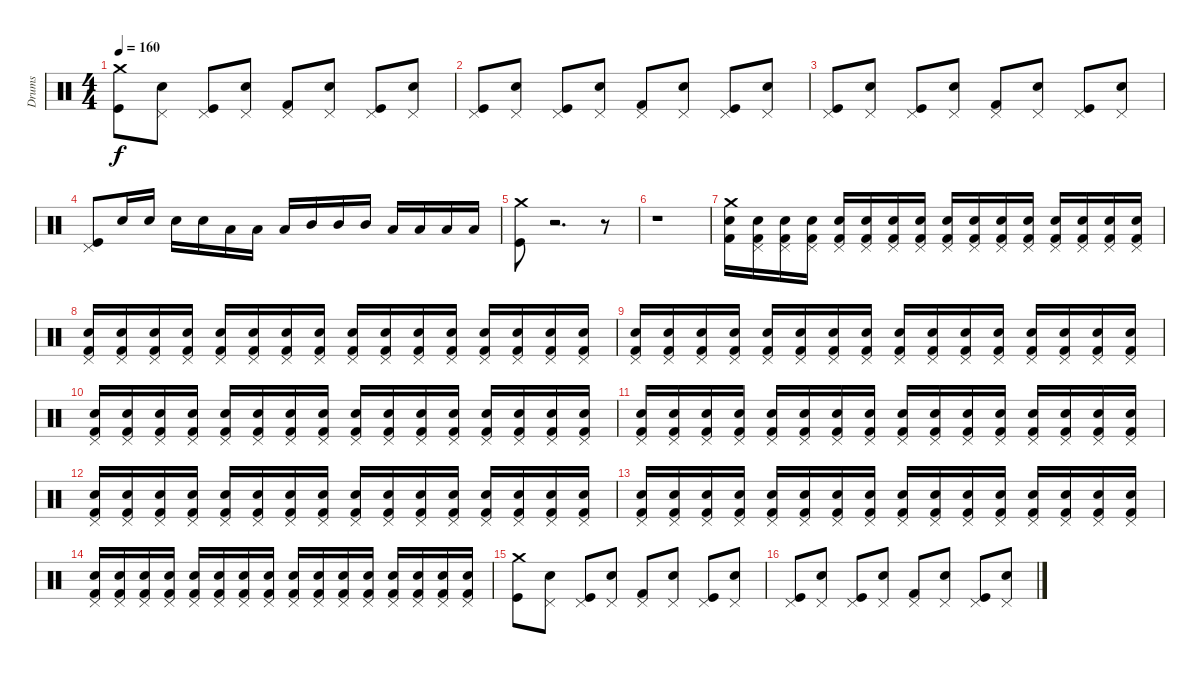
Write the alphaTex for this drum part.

\track ("Drums" "Drums") {instrument percussion}
\staff {score}
\articulation defaults
\ts (4 4)
\tempo 160
\clef neutral
\ks c
("Crash medium (hit)" "Kick (hit)").8{dy f} ("Pedal Hi-Hat (hit)" "Electric Snare (hit)").8 ("Pedal Hi-Hat (hit)" "Kick (hit)").8 ("Pedal Hi-Hat (hit)" "Electric Snare (hit)").8 ("Pedal Hi-Hat (hit)" "Kick (hit) 2").8 ("Pedal Hi-Hat (hit)" "Electric Snare (hit)").8 ("Pedal Hi-Hat (hit)" "Kick (hit)").8 ("Pedal Hi-Hat (hit)" "Electric Snare (hit)").8 |
("Pedal Hi-Hat (hit)" "Kick (hit)").8 ("Pedal Hi-Hat (hit)" "Electric Snare (hit)").8 ("Pedal Hi-Hat (hit)" "Kick (hit)").8 ("Pedal Hi-Hat (hit)" "Electric Snare (hit)").8 ("Pedal Hi-Hat (hit)" "Kick (hit) 2").8 ("Pedal Hi-Hat (hit)" "Electric Snare (hit)").8 ("Pedal Hi-Hat (hit)" "Kick (hit)").8 ("Pedal Hi-Hat (hit)" "Electric Snare (hit)").8 |
("Pedal Hi-Hat (hit)" "Kick (hit)").8 ("Pedal Hi-Hat (hit)" "Electric Snare (hit)").8 ("Pedal Hi-Hat (hit)" "Kick (hit)").8 ("Pedal Hi-Hat (hit)" "Electric Snare (hit)").8 ("Pedal Hi-Hat (hit)" "Kick (hit) 2").8 ("Pedal Hi-Hat (hit)" "Electric Snare (hit)").8 ("Pedal Hi-Hat (hit)" "Kick (hit)").8 ("Pedal Hi-Hat (hit)" "Electric Snare (hit)").8 |
("Pedal Hi-Hat (hit)" "Kick (hit)").8 "Electric Snare (hit)".16 "Electric Snare (hit)".16 "Electric Snare (hit)".16 "Electric Snare (hit)".16 "Low Tom (hit)".16 "Low Tom (hit)".16 "Low Tom (hit)".16 "Mid Tom (hit)".16 "Mid Tom (hit)".16 "Mid Tom (hit)".16 "Low Tom (hit)".16 "Low Tom (hit)".16 "Low Tom (hit)".16 "Low Tom (hit)".16 |
("Crash medium (hit)" "Kick (hit)").8 r.2{d} r.8 |
r.1 |
("Electric Snare (hit)" "Crash medium (hit)" "Kick (hit) 2").16 ("Pedal Hi-Hat (hit)" "Electric Snare (hit)" "Kick (hit) 2").16 ("Pedal Hi-Hat (hit)" "Kick (hit) 2" "Electric Snare (hit)").16 ("Pedal Hi-Hat (hit)" "Kick (hit) 2" "Electric Snare (hit)").16 ("Pedal Hi-Hat (hit)" "Electric Snare (hit)" "Kick (hit) 2").16 ("Pedal Hi-Hat (hit)" "Electric Snare (hit)" "Kick (hit) 2").16 ("Pedal Hi-Hat (hit)" "Kick (hit) 2" "Electric Snare (hit)").16 ("Pedal Hi-Hat (hit)" "Kick (hit) 2" "Electric Snare (hit)").16 ("Pedal Hi-Hat (hit)" "Electric Snare (hit)" "Kick (hit) 2").16 ("Pedal Hi-Hat (hit)" "Electric Snare (hit)" "Kick (hit) 2").16 ("Pedal Hi-Hat (hit)" "Kick (hit) 2" "Electric Snare (hit)").16 ("Pedal Hi-Hat (hit)" "Kick (hit) 2" "Electric Snare (hit)").16 ("Pedal Hi-Hat (hit)" "Electric Snare (hit)" "Kick (hit) 2").16 ("Pedal Hi-Hat (hit)" "Electric Snare (hit)" "Kick (hit) 2").16 ("Pedal Hi-Hat (hit)" "Kick (hit) 2" "Electric Snare (hit)").16 ("Pedal Hi-Hat (hit)" "Kick (hit) 2" "Electric Snare (hit)").16 |
("Pedal Hi-Hat (hit)" "Electric Snare (hit)" "Kick (hit) 2").16 ("Pedal Hi-Hat (hit)" "Electric Snare (hit)" "Kick (hit) 2").16 ("Pedal Hi-Hat (hit)" "Kick (hit) 2" "Electric Snare (hit)").16 ("Pedal Hi-Hat (hit)" "Kick (hit) 2" "Electric Snare (hit)").16 ("Pedal Hi-Hat (hit)" "Electric Snare (hit)" "Kick (hit) 2").16 ("Pedal Hi-Hat (hit)" "Electric Snare (hit)" "Kick (hit) 2").16 ("Pedal Hi-Hat (hit)" "Kick (hit) 2" "Electric Snare (hit)").16 ("Pedal Hi-Hat (hit)" "Kick (hit) 2" "Electric Snare (hit)").16 ("Pedal Hi-Hat (hit)" "Electric Snare (hit)" "Kick (hit) 2").16 ("Pedal Hi-Hat (hit)" "Electric Snare (hit)" "Kick (hit) 2").16 ("Pedal Hi-Hat (hit)" "Kick (hit) 2" "Electric Snare (hit)").16 ("Pedal Hi-Hat (hit)" "Kick (hit) 2" "Electric Snare (hit)").16 ("Pedal Hi-Hat (hit)" "Electric Snare (hit)" "Kick (hit) 2").16 ("Pedal Hi-Hat (hit)" "Electric Snare (hit)" "Kick (hit) 2").16 ("Pedal Hi-Hat (hit)" "Kick (hit) 2" "Electric Snare (hit)").16 ("Pedal Hi-Hat (hit)" "Kick (hit) 2" "Electric Snare (hit)").16 |
("Pedal Hi-Hat (hit)" "Electric Snare (hit)" "Kick (hit) 2").16 ("Pedal Hi-Hat (hit)" "Electric Snare (hit)" "Kick (hit) 2").16 ("Pedal Hi-Hat (hit)" "Kick (hit) 2" "Electric Snare (hit)").16 ("Pedal Hi-Hat (hit)" "Kick (hit) 2" "Electric Snare (hit)").16 ("Pedal Hi-Hat (hit)" "Electric Snare (hit)" "Kick (hit) 2").16 ("Pedal Hi-Hat (hit)" "Electric Snare (hit)" "Kick (hit) 2").16 ("Pedal Hi-Hat (hit)" "Kick (hit) 2" "Electric Snare (hit)").16 ("Pedal Hi-Hat (hit)" "Kick (hit) 2" "Electric Snare (hit)").16 ("Pedal Hi-Hat (hit)" "Electric Snare (hit)" "Kick (hit) 2").16 ("Pedal Hi-Hat (hit)" "Electric Snare (hit)" "Kick (hit) 2").16 ("Pedal Hi-Hat (hit)" "Kick (hit) 2" "Electric Snare (hit)").16 ("Pedal Hi-Hat (hit)" "Kick (hit) 2" "Electric Snare (hit)").16 ("Pedal Hi-Hat (hit)" "Electric Snare (hit)" "Kick (hit) 2").16 ("Pedal Hi-Hat (hit)" "Electric Snare (hit)" "Kick (hit) 2").16 ("Pedal Hi-Hat (hit)" "Kick (hit) 2" "Electric Snare (hit)").16 ("Pedal Hi-Hat (hit)" "Kick (hit) 2" "Electric Snare (hit)").16 |
("Pedal Hi-Hat (hit)" "Electric Snare (hit)" "Kick (hit) 2").16 ("Pedal Hi-Hat (hit)" "Electric Snare (hit)" "Kick (hit) 2").16 ("Pedal Hi-Hat (hit)" "Kick (hit) 2" "Electric Snare (hit)").16 ("Pedal Hi-Hat (hit)" "Kick (hit) 2" "Electric Snare (hit)").16 ("Pedal Hi-Hat (hit)" "Electric Snare (hit)" "Kick (hit) 2").16 ("Pedal Hi-Hat (hit)" "Electric Snare (hit)" "Kick (hit) 2").16 ("Pedal Hi-Hat (hit)" "Kick (hit) 2" "Electric Snare (hit)").16 ("Pedal Hi-Hat (hit)" "Kick (hit) 2" "Electric Snare (hit)").16 ("Pedal Hi-Hat (hit)" "Electric Snare (hit)" "Kick (hit) 2").16 ("Pedal Hi-Hat (hit)" "Electric Snare (hit)" "Kick (hit) 2").16 ("Pedal Hi-Hat (hit)" "Kick (hit) 2" "Electric Snare (hit)").16 ("Pedal Hi-Hat (hit)" "Kick (hit) 2" "Electric Snare (hit)").16 ("Pedal Hi-Hat (hit)" "Electric Snare (hit)" "Kick (hit) 2").16 ("Pedal Hi-Hat (hit)" "Electric Snare (hit)" "Kick (hit) 2").16 ("Pedal Hi-Hat (hit)" "Kick (hit) 2" "Electric Snare (hit)").16 ("Pedal Hi-Hat (hit)" "Kick (hit) 2" "Electric Snare (hit)").16 |
("Pedal Hi-Hat (hit)" "Electric Snare (hit)" "Kick (hit) 2").16 ("Pedal Hi-Hat (hit)" "Electric Snare (hit)" "Kick (hit) 2").16 ("Pedal Hi-Hat (hit)" "Kick (hit) 2" "Electric Snare (hit)").16 ("Pedal Hi-Hat (hit)" "Kick (hit) 2" "Electric Snare (hit)").16 ("Pedal Hi-Hat (hit)" "Electric Snare (hit)" "Kick (hit) 2").16 ("Pedal Hi-Hat (hit)" "Electric Snare (hit)" "Kick (hit) 2").16 ("Pedal Hi-Hat (hit)" "Kick (hit) 2" "Electric Snare (hit)").16 ("Pedal Hi-Hat (hit)" "Kick (hit) 2" "Electric Snare (hit)").16 ("Pedal Hi-Hat (hit)" "Electric Snare (hit)" "Kick (hit) 2").16 ("Pedal Hi-Hat (hit)" "Electric Snare (hit)" "Kick (hit) 2").16 ("Pedal Hi-Hat (hit)" "Kick (hit) 2" "Electric Snare (hit)").16 ("Pedal Hi-Hat (hit)" "Kick (hit) 2" "Electric Snare (hit)").16 ("Pedal Hi-Hat (hit)" "Electric Snare (hit)" "Kick (hit) 2").16 ("Pedal Hi-Hat (hit)" "Electric Snare (hit)" "Kick (hit) 2").16 ("Pedal Hi-Hat (hit)" "Kick (hit) 2" "Electric Snare (hit)").16 ("Pedal Hi-Hat (hit)" "Kick (hit) 2" "Electric Snare (hit)").16 |
("Pedal Hi-Hat (hit)" "Electric Snare (hit)" "Kick (hit) 2").16 ("Pedal Hi-Hat (hit)" "Electric Snare (hit)" "Kick (hit) 2").16 ("Pedal Hi-Hat (hit)" "Kick (hit) 2" "Electric Snare (hit)").16 ("Pedal Hi-Hat (hit)" "Kick (hit) 2" "Electric Snare (hit)").16 ("Pedal Hi-Hat (hit)" "Electric Snare (hit)" "Kick (hit) 2").16 ("Pedal Hi-Hat (hit)" "Electric Snare (hit)" "Kick (hit) 2").16 ("Pedal Hi-Hat (hit)" "Kick (hit) 2" "Electric Snare (hit)").16 ("Pedal Hi-Hat (hit)" "Kick (hit) 2" "Electric Snare (hit)").16 ("Pedal Hi-Hat (hit)" "Electric Snare (hit)" "Kick (hit) 2").16 ("Pedal Hi-Hat (hit)" "Electric Snare (hit)" "Kick (hit) 2").16 ("Pedal Hi-Hat (hit)" "Kick (hit) 2" "Electric Snare (hit)").16 ("Pedal Hi-Hat (hit)" "Kick (hit) 2" "Electric Snare (hit)").16 ("Pedal Hi-Hat (hit)" "Electric Snare (hit)" "Kick (hit) 2").16 ("Pedal Hi-Hat (hit)" "Electric Snare (hit)" "Kick (hit) 2").16 ("Pedal Hi-Hat (hit)" "Kick (hit) 2" "Electric Snare (hit)").16 ("Pedal Hi-Hat (hit)" "Kick (hit) 2" "Electric Snare (hit)").16 |
("Pedal Hi-Hat (hit)" "Electric Snare (hit)" "Kick (hit) 2").16 ("Pedal Hi-Hat (hit)" "Electric Snare (hit)" "Kick (hit) 2").16 ("Pedal Hi-Hat (hit)" "Kick (hit) 2" "Electric Snare (hit)").16 ("Pedal Hi-Hat (hit)" "Kick (hit) 2" "Electric Snare (hit)").16 ("Pedal Hi-Hat (hit)" "Electric Snare (hit)" "Kick (hit) 2").16 ("Pedal Hi-Hat (hit)" "Electric Snare (hit)" "Kick (hit) 2").16 ("Pedal Hi-Hat (hit)" "Kick (hit) 2" "Electric Snare (hit)").16 ("Pedal Hi-Hat (hit)" "Kick (hit) 2" "Electric Snare (hit)").16 ("Pedal Hi-Hat (hit)" "Electric Snare (hit)" "Kick (hit) 2").16 ("Pedal Hi-Hat (hit)" "Electric Snare (hit)" "Kick (hit) 2").16 ("Pedal Hi-Hat (hit)" "Kick (hit) 2" "Electric Snare (hit)").16 ("Pedal Hi-Hat (hit)" "Kick (hit) 2" "Electric Snare (hit)").16 ("Pedal Hi-Hat (hit)" "Electric Snare (hit)" "Kick (hit) 2").16 ("Pedal Hi-Hat (hit)" "Electric Snare (hit)" "Kick (hit) 2").16 ("Pedal Hi-Hat (hit)" "Kick (hit) 2" "Electric Snare (hit)").16 ("Pedal Hi-Hat (hit)" "Kick (hit) 2" "Electric Snare (hit)").16 |
("Pedal Hi-Hat (hit)" "Electric Snare (hit)" "Kick (hit) 2").16 ("Pedal Hi-Hat (hit)" "Electric Snare (hit)" "Kick (hit) 2").16 ("Pedal Hi-Hat (hit)" "Kick (hit) 2" "Electric Snare (hit)").16 ("Pedal Hi-Hat (hit)" "Kick (hit) 2" "Electric Snare (hit)").16 ("Pedal Hi-Hat (hit)" "Electric Snare (hit)" "Kick (hit) 2").16 ("Pedal Hi-Hat (hit)" "Electric Snare (hit)" "Kick (hit) 2").16 ("Pedal Hi-Hat (hit)" "Kick (hit) 2" "Electric Snare (hit)").16 ("Pedal Hi-Hat (hit)" "Kick (hit) 2" "Electric Snare (hit)").16 ("Pedal Hi-Hat (hit)" "Electric Snare (hit)" "Kick (hit) 2").16 ("Pedal Hi-Hat (hit)" "Electric Snare (hit)" "Kick (hit) 2").16 ("Pedal Hi-Hat (hit)" "Kick (hit) 2" "Electric Snare (hit)").16 ("Pedal Hi-Hat (hit)" "Kick (hit) 2" "Electric Snare (hit)").16 ("Pedal Hi-Hat (hit)" "Electric Snare (hit)" "Kick (hit) 2").16 ("Pedal Hi-Hat (hit)" "Electric Snare (hit)" "Kick (hit) 2").16 ("Pedal Hi-Hat (hit)" "Kick (hit) 2" "Electric Snare (hit)").16 ("Pedal Hi-Hat (hit)" "Kick (hit) 2" "Electric Snare (hit)").16 |
("Crash medium (hit)" "Kick (hit)").8 ("Pedal Hi-Hat (hit)" "Electric Snare (hit)").8 ("Pedal Hi-Hat (hit)" "Kick (hit)").8 ("Pedal Hi-Hat (hit)" "Electric Snare (hit)").8 ("Pedal Hi-Hat (hit)" "Kick (hit) 2").8 ("Pedal Hi-Hat (hit)" "Electric Snare (hit)").8 ("Pedal Hi-Hat (hit)" "Kick (hit)").8 ("Pedal Hi-Hat (hit)" "Electric Snare (hit)").8 |
("Pedal Hi-Hat (hit)" "Kick (hit)").8 ("Pedal Hi-Hat (hit)" "Electric Snare (hit)").8 ("Pedal Hi-Hat (hit)" "Kick (hit)").8 ("Pedal Hi-Hat (hit)" "Electric Snare (hit)").8 ("Pedal Hi-Hat (hit)" "Kick (hit) 2").8 ("Pedal Hi-Hat (hit)" "Electric Snare (hit)").8 ("Pedal Hi-Hat (hit)" "Kick (hit)").8 ("Pedal Hi-Hat (hit)" "Electric Snare (hit)").8
